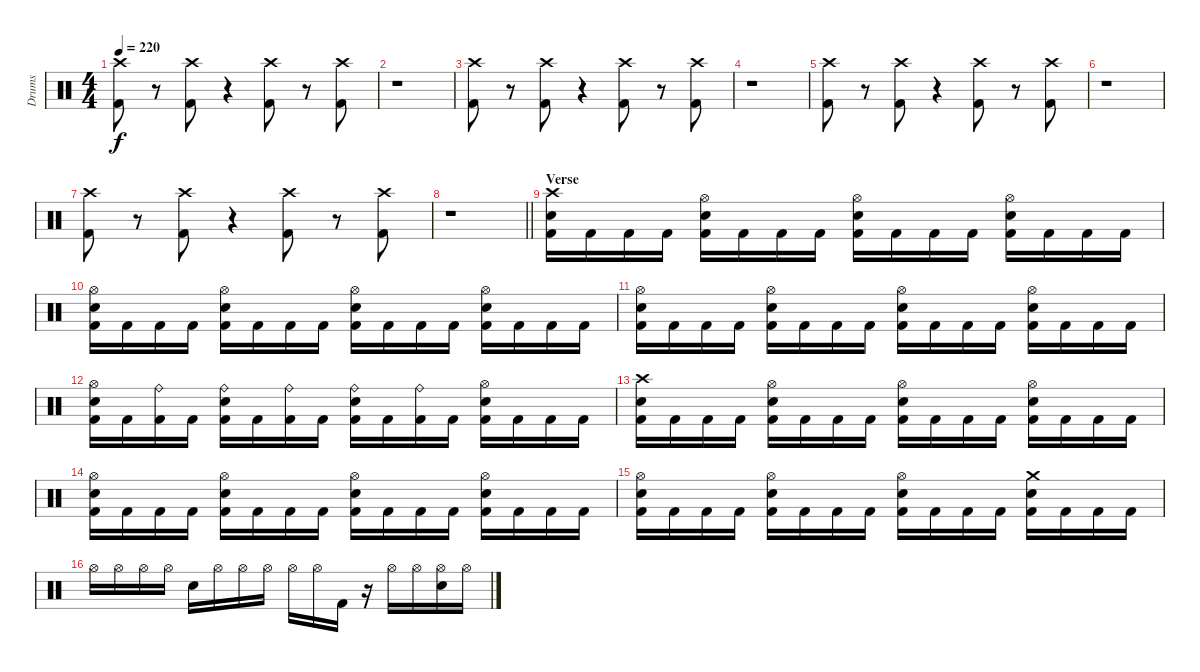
\track ("Drums" "Drums") {instrument percussion}
\staff {score}
\articulation defaults
\ts (4 4)
\tempo 220
\clef neutral
\ks c
("Crash high (hit)" "Kick (hit) 2").8{dy f} r.8 ("Crash high (hit)" "Kick (hit) 2").8 r.4 ("Crash high (hit)" "Kick (hit) 2").8 r.8 ("Crash high (hit)" "Kick (hit) 2").8 |
r.1 |
("Crash high (hit)" "Kick (hit) 2").8 r.8 ("Crash high (hit)" "Kick (hit) 2").8 r.4 ("Crash high (hit)" "Kick (hit) 2").8 r.8 ("Crash high (hit)" "Kick (hit) 2").8 |
r.1 |
("Crash high (hit)" "Kick (hit) 2").8 r.8 ("Crash high (hit)" "Kick (hit) 2").8 r.4 ("Crash high (hit)" "Kick (hit) 2").8 r.8 ("Crash high (hit)" "Kick (hit) 2").8 |
r.1 |
("Crash high (hit)" "Kick (hit) 2").8 r.8 ("Crash high (hit)" "Kick (hit) 2").8 r.4 ("Crash high (hit)" "Kick (hit) 2").8 r.8 ("Crash high (hit)" "Kick (hit) 2").8 |
\barLineRight lightlight
r.1 |
\section ("" "Verse")
("Crash high (hit)" "Electric Snare (hit)" "Kick (hit) 2").16 "Kick (hit) 2".16 "Kick (hit) 2".16 "Kick (hit) 2".16 ("Hi-Hat (open)" "Electric Snare (hit)" "Kick (hit) 2").16 "Kick (hit) 2".16 "Kick (hit) 2".16 "Kick (hit) 2".16 ("Hi-Hat (open)" "Electric Snare (hit)" "Kick (hit) 2").16 "Kick (hit) 2".16 "Kick (hit) 2".16 "Kick (hit) 2".16 ("Hi-Hat (open)" "Electric Snare (hit)" "Kick (hit) 2").16 "Kick (hit) 2".16 "Kick (hit) 2".16 "Kick (hit) 2".16 |
("Hi-Hat (open)" "Electric Snare (hit)" "Kick (hit) 2").16 "Kick (hit) 2".16 "Kick (hit) 2".16 "Kick (hit) 2".16 ("Hi-Hat (open)" "Electric Snare (hit)" "Kick (hit) 2").16 "Kick (hit) 2".16 "Kick (hit) 2".16 "Kick (hit) 2".16 ("Hi-Hat (open)" "Electric Snare (hit)" "Kick (hit) 2").16 "Kick (hit) 2".16 "Kick (hit) 2".16 "Kick (hit) 2".16 ("Hi-Hat (open)" "Electric Snare (hit)" "Kick (hit) 2").16 "Kick (hit) 2".16 "Kick (hit) 2".16 "Kick (hit) 2".16 |
("Hi-Hat (open)" "Electric Snare (hit)" "Kick (hit) 2").16 "Kick (hit) 2".16 "Kick (hit) 2".16 "Kick (hit) 2".16 ("Hi-Hat (open)" "Electric Snare (hit)" "Kick (hit) 2").16 "Kick (hit) 2".16 "Kick (hit) 2".16 "Kick (hit) 2".16 ("Hi-Hat (open)" "Electric Snare (hit)" "Kick (hit) 2").16 "Kick (hit) 2".16 "Kick (hit) 2".16 "Kick (hit) 2".16 ("Hi-Hat (open)" "Electric Snare (hit)" "Kick (hit) 2").16 "Kick (hit) 2".16 "Kick (hit) 2".16 "Kick (hit) 2".16 |
("Hi-Hat (open)" "Electric Snare (hit)" "Kick (hit) 2").16 "Kick (hit) 2".16 ("Ride (bell)" "Kick (hit) 2").16 "Kick (hit) 2".16 ("Ride (bell)" "Electric Snare (hit)" "Kick (hit) 2").16 "Kick (hit) 2".16 ("Ride (bell)" "Kick (hit) 2").16 "Kick (hit) 2".16 ("Ride (bell)" "Electric Snare (hit)" "Kick (hit) 2").16 "Kick (hit) 2".16 ("Ride (bell)" "Kick (hit) 2").16 "Kick (hit) 2".16 ("Hi-Hat (open)" "Electric Snare (hit)" "Kick (hit) 2").16 "Kick (hit) 2".16 "Kick (hit) 2".16 "Kick (hit) 2".16 |
("Crash high (hit)" "Electric Snare (hit)" "Kick (hit) 2").16 "Kick (hit) 2".16 "Kick (hit) 2".16 "Kick (hit) 2".16 ("Hi-Hat (open)" "Electric Snare (hit)" "Kick (hit) 2").16 "Kick (hit) 2".16 "Kick (hit) 2".16 "Kick (hit) 2".16 ("Hi-Hat (open)" "Electric Snare (hit)" "Kick (hit) 2").16 "Kick (hit) 2".16 "Kick (hit) 2".16 "Kick (hit) 2".16 ("Hi-Hat (open)" "Electric Snare (hit)" "Kick (hit) 2").16 "Kick (hit) 2".16 "Kick (hit) 2".16 "Kick (hit) 2".16 |
("Hi-Hat (open)" "Electric Snare (hit)" "Kick (hit) 2").16 "Kick (hit) 2".16 "Kick (hit) 2".16 "Kick (hit) 2".16 ("Hi-Hat (open)" "Electric Snare (hit)" "Kick (hit) 2").16 "Kick (hit) 2".16 "Kick (hit) 2".16 "Kick (hit) 2".16 ("Hi-Hat (open)" "Electric Snare (hit)" "Kick (hit) 2").16 "Kick (hit) 2".16 "Kick (hit) 2".16 "Kick (hit) 2".16 ("Hi-Hat (open)" "Electric Snare (hit)" "Kick (hit) 2").16 "Kick (hit) 2".16 "Kick (hit) 2".16 "Kick (hit) 2".16 |
("Hi-Hat (open)" "Electric Snare (hit)" "Kick (hit) 2").16 "Kick (hit) 2".16 "Kick (hit) 2".16 "Kick (hit) 2".16 ("Hi-Hat (open)" "Electric Snare (hit)" "Kick (hit) 2").16 "Kick (hit) 2".16 "Kick (hit) 2".16 "Kick (hit) 2".16 ("Hi-Hat (open)" "Electric Snare (hit)" "Kick (hit) 2").16 "Kick (hit) 2".16 "Kick (hit) 2".16 "Kick (hit) 2".16 ("Crash medium (hit)" "Electric Snare (hit)" "Kick (hit) 2").16 "Kick (hit) 2".16 "Kick (hit) 2".16 "Kick (hit) 2".16 |
"Hi-Hat (open)".16 "Hi-Hat (open)".16 "Hi-Hat (open)".16 "Hi-Hat (open)".16 "Electric Snare (hit)".16 "Hi-Hat (open)".16 "Hi-Hat (open)".16 "Hi-Hat (open)".16 "Hi-Hat (open)".16 "Hi-Hat (open)".16 "Kick (hit) 2".16 r.16 "Hi-Hat (open)".16 "Hi-Hat (open)".16 ("Hi-Hat (open)" "Electric Snare (hit)").16 "Hi-Hat (open)".16
